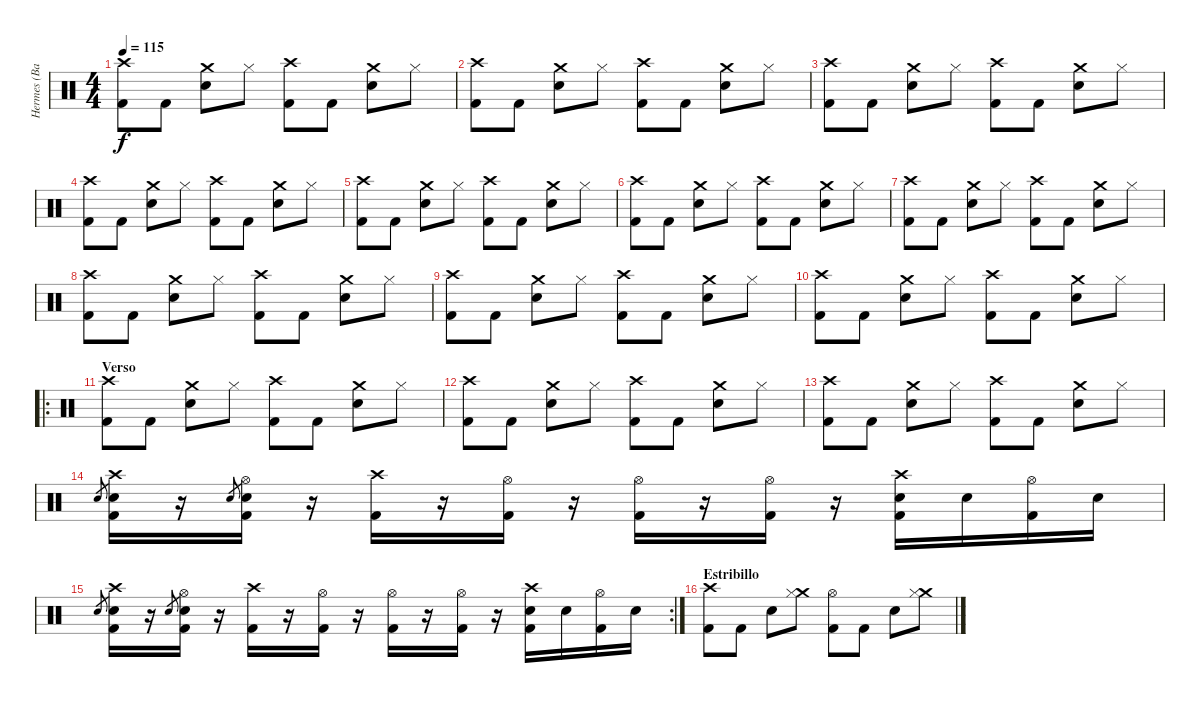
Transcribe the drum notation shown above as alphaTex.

\track ("Hermes (Bateria)" "Hermes (Ba") {instrument percussion}
\staff {score}
\articulation defaults
\ts (4 4)
\tempo 115
\clef neutral
\ks c
("Crash high (hit)" "Kick (hit) 2").8{dy f} "Kick (hit) 2".8 ("Crash medium (hit)" "Snare (hit) 2").8 "Hi-Hat (closed)".8 ("Crash high (hit)" "Kick (hit) 2").8 "Kick (hit) 2".8 ("Crash medium (hit)" "Snare (hit) 2").8 "Hi-Hat (closed)".8 |
("Crash high (hit)" "Kick (hit) 2").8 "Kick (hit) 2".8 ("Crash medium (hit)" "Snare (hit) 2").8 "Hi-Hat (closed)".8 ("Crash high (hit)" "Kick (hit) 2").8 "Kick (hit) 2".8 ("Crash medium (hit)" "Snare (hit) 2").8 "Hi-Hat (closed)".8 |
("Crash high (hit)" "Kick (hit) 2").8 "Kick (hit) 2".8 ("Crash medium (hit)" "Snare (hit) 2").8 "Hi-Hat (closed)".8 ("Crash high (hit)" "Kick (hit) 2").8 "Kick (hit) 2".8 ("Crash medium (hit)" "Snare (hit) 2").8 "Hi-Hat (closed)".8 |
("Crash high (hit)" "Kick (hit) 2").8 "Kick (hit) 2".8 ("Crash medium (hit)" "Snare (hit) 2").8 "Hi-Hat (closed)".8 ("Crash high (hit)" "Kick (hit) 2").8 "Kick (hit) 2".8 ("Crash medium (hit)" "Snare (hit) 2").8 "Hi-Hat (closed)".8 |
("Crash high (hit)" "Kick (hit) 2").8 "Kick (hit) 2".8 ("Crash medium (hit)" "Snare (hit) 2").8 "Hi-Hat (closed)".8 ("Crash high (hit)" "Kick (hit) 2").8 "Kick (hit) 2".8 ("Crash medium (hit)" "Snare (hit) 2").8 "Hi-Hat (closed)".8 |
("Crash high (hit)" "Kick (hit) 2").8 "Kick (hit) 2".8 ("Crash medium (hit)" "Snare (hit) 2").8 "Hi-Hat (closed)".8 ("Crash high (hit)" "Kick (hit) 2").8 "Kick (hit) 2".8 ("Crash medium (hit)" "Snare (hit) 2").8 "Hi-Hat (closed)".8 |
("Crash high (hit)" "Kick (hit) 2").8 "Kick (hit) 2".8 ("Crash medium (hit)" "Snare (hit) 2").8 "Hi-Hat (closed)".8 ("Crash high (hit)" "Kick (hit) 2").8 "Kick (hit) 2".8 ("Crash medium (hit)" "Snare (hit) 2").8 "Hi-Hat (closed)".8 |
("Crash high (hit)" "Kick (hit) 2").8 "Kick (hit) 2".8 ("Crash medium (hit)" "Snare (hit) 2").8 "Hi-Hat (closed)".8 ("Crash high (hit)" "Kick (hit) 2").8 "Kick (hit) 2".8 ("Crash medium (hit)" "Snare (hit) 2").8 "Hi-Hat (closed)".8 |
("Crash high (hit)" "Kick (hit) 2").8 "Kick (hit) 2".8 ("Crash medium (hit)" "Snare (hit) 2").8 "Hi-Hat (closed)".8 ("Crash high (hit)" "Kick (hit) 2").8 "Kick (hit) 2".8 ("Crash medium (hit)" "Snare (hit) 2").8 "Hi-Hat (closed)".8 |
("Crash high (hit)" "Kick (hit) 2").8 "Kick (hit) 2".8 ("Crash medium (hit)" "Snare (hit) 2").8 "Hi-Hat (closed)".8 ("Crash high (hit)" "Kick (hit) 2").8 "Kick (hit) 2".8 ("Crash medium (hit)" "Snare (hit) 2").8 "Hi-Hat (closed)".8 |
\ro
\section ("" "Verso")
("Crash high (hit)" "Kick (hit) 2").8 "Kick (hit) 2".8 ("Crash medium (hit)" "Snare (hit) 2").8 "Hi-Hat (closed)".8 ("Crash high (hit)" "Kick (hit) 2").8 "Kick (hit) 2".8 ("Crash medium (hit)" "Snare (hit) 2").8 "Hi-Hat (closed)".8 |
("Crash high (hit)" "Kick (hit) 2").8 "Kick (hit) 2".8 ("Crash medium (hit)" "Snare (hit) 2").8 "Hi-Hat (closed)".8 ("Crash high (hit)" "Kick (hit) 2").8 "Kick (hit) 2".8 ("Crash medium (hit)" "Snare (hit) 2").8 "Hi-Hat (closed)".8 |
("Crash high (hit)" "Kick (hit) 2").8 "Kick (hit) 2".8 ("Crash medium (hit)" "Snare (hit) 2").8 "Hi-Hat (closed)".8 ("Crash high (hit)" "Kick (hit) 2").8 "Kick (hit) 2".8 ("Crash medium (hit)" "Snare (hit) 2").8 "Hi-Hat (closed)".8 |
"Snare (hit) 2".8{gr} ("Crash high (hit)" "Snare (hit) 2" "Kick (hit) 2").16 r.16 "Snare (hit) 2".8{gr} ("Hi-Hat (open)" "Snare (hit) 2" "Kick (hit) 2").16 r.16 ("Crash high (hit)" "Kick (hit) 2").16 r.16 ("Hi-Hat (open)" "Kick (hit) 2").16 r.16 ("Hi-Hat (open)" "Kick (hit) 2").16 r.16 ("Hi-Hat (open)" "Kick (hit) 2").16 r.16 ("Crash high (hit)" "Snare (hit) 2" "Kick (hit) 2").16 "Snare (hit) 2".16 ("Hi-Hat (open)" "Kick (hit) 2").16 "Snare (hit) 2".16 |
\rc 2 "Snare (hit) 2".8{gr}
("Crash high (hit)" "Snare (hit) 2" "Kick (hit) 2").16 r.16 "Snare (hit) 2".8{gr} ("Hi-Hat (open)" "Snare (hit) 2" "Kick (hit) 2").16 r.16 ("Crash high (hit)" "Kick (hit) 2").16 r.16 ("Hi-Hat (open)" "Kick (hit) 2").16 r.16 ("Hi-Hat (open)" "Kick (hit) 2").16 r.16 ("Hi-Hat (open)" "Kick (hit) 2").16 r.16 ("Crash high (hit)" "Snare (hit) 2" "Kick (hit) 2").16 "Snare (hit) 2".16 ("Hi-Hat (open)" "Kick (hit) 2").16 "Snare (hit) 2".16 |
\section ("" "Estribillo")
("Crash high (hit)" "Kick (hit) 2").8 "Kick (hit) 2".8 "Snare (hit) 2".8 ("Crash medium (hit)" "Hi-Hat (closed)").8 ("Hi-Hat (open)" "Kick (hit) 2").8 "Kick (hit) 2".8 "Snare (hit) 2".8 ("Crash medium (hit)" "Hi-Hat (closed)").8
